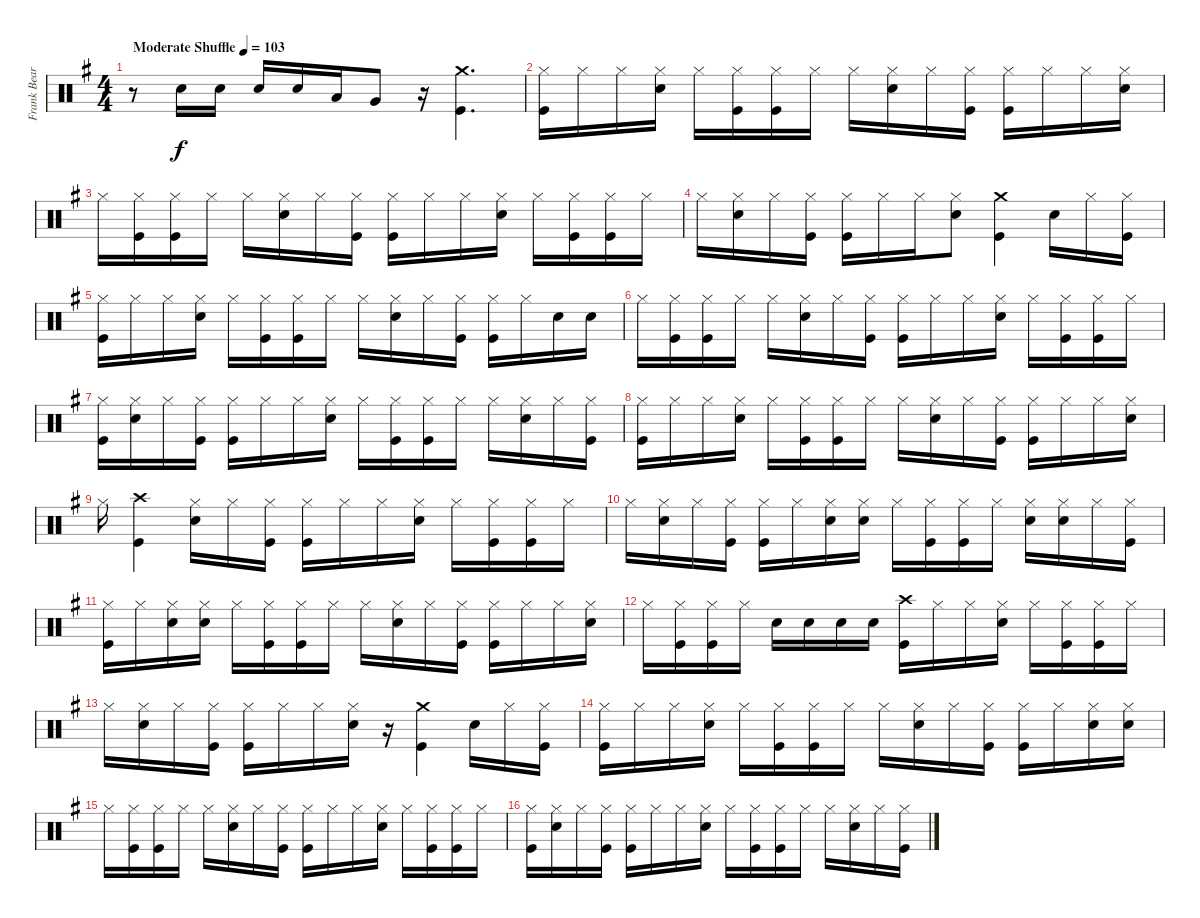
\track ("Frank Beard Drums" "Frank Bear") {instrument percussion}
\staff {score}
\articulation defaults
\ts (4 4)
\tempo (103 "Moderate Shuffle")
\clef neutral
\ks g
r.8{dy f} "Snare (hit) 2".16 "Snare (hit) 2".16 "Snare (hit) 2".16 "Snare (hit) 2".16 "Low Tom (hit)".16 "Very Low Tom (hit)".8 r.16 ("Crash medium (hit)" "Kick (hit)").4{d} |
("Hi-Hat (closed)" "Kick (hit)").16 "Hi-Hat (closed)".16 "Hi-Hat (closed)".16 ("Hi-Hat (closed)" "Snare (hit) 2").16 "Hi-Hat (closed)".16 ("Hi-Hat (closed)" "Kick (hit)").16 ("Hi-Hat (closed)" "Kick (hit)").16 "Hi-Hat (closed)".16 "Hi-Hat (closed)".16 ("Hi-Hat (closed)" "Snare (hit) 2").16 "Hi-Hat (closed)".16 ("Hi-Hat (closed)" "Kick (hit)").16 ("Hi-Hat (closed)" "Kick (hit)").16 "Hi-Hat (closed)".16 "Hi-Hat (closed)".16 ("Hi-Hat (closed)" "Snare (hit) 2").16 |
"Hi-Hat (closed)".16 ("Hi-Hat (closed)" "Kick (hit)").16 ("Hi-Hat (closed)" "Kick (hit)").16 "Hi-Hat (closed)".16 "Hi-Hat (closed)".16 ("Hi-Hat (closed)" "Snare (hit) 2").16 "Hi-Hat (closed)".16 ("Hi-Hat (closed)" "Kick (hit)").16 ("Hi-Hat (closed)" "Kick (hit)").16 "Hi-Hat (closed)".16 "Hi-Hat (closed)".16 ("Hi-Hat (closed)" "Snare (hit) 2").16 "Hi-Hat (closed)".16 ("Hi-Hat (closed)" "Kick (hit)").16 ("Hi-Hat (closed)" "Kick (hit)").16 "Hi-Hat (closed)".16 |
"Hi-Hat (closed)".16 ("Hi-Hat (closed)" "Snare (hit) 2").16 "Hi-Hat (closed)".16 ("Hi-Hat (closed)" "Kick (hit)").16 ("Hi-Hat (closed)" "Kick (hit)").16 "Hi-Hat (closed)".16 "Hi-Hat (closed)".16 ("Hi-Hat (closed)" "Snare (hit) 2").8 ("Crash medium (hit)" "Kick (hit)").4 "Snare (hit) 2".16 "Hi-Hat (closed)".16 ("Hi-Hat (closed)" "Kick (hit)").16 |
("Hi-Hat (closed)" "Kick (hit)").16 "Hi-Hat (closed)".16 "Hi-Hat (closed)".16 ("Hi-Hat (closed)" "Snare (hit) 2").16 "Hi-Hat (closed)".16 ("Hi-Hat (closed)" "Kick (hit)").16 ("Hi-Hat (closed)" "Kick (hit)").16 "Hi-Hat (closed)".16 "Hi-Hat (closed)".16 ("Hi-Hat (closed)" "Snare (hit) 2").16 "Hi-Hat (closed)".16 ("Hi-Hat (closed)" "Kick (hit)").16 ("Hi-Hat (closed)" "Kick (hit)").16 "Hi-Hat (closed)".16 "Snare (hit) 2".16 "Snare (hit) 2".16 |
"Hi-Hat (closed)".16 ("Hi-Hat (closed)" "Kick (hit)").16 ("Hi-Hat (closed)" "Kick (hit)").16 "Hi-Hat (closed)".16 "Hi-Hat (closed)".16 ("Hi-Hat (closed)" "Snare (hit) 2").16 "Hi-Hat (closed)".16 ("Hi-Hat (closed)" "Kick (hit)").16 ("Hi-Hat (closed)" "Kick (hit)").16 "Hi-Hat (closed)".16 "Hi-Hat (closed)".16 ("Hi-Hat (closed)" "Snare (hit) 2").16 "Hi-Hat (closed)".16 ("Hi-Hat (closed)" "Kick (hit)").16 ("Hi-Hat (closed)" "Kick (hit)").16 "Hi-Hat (closed)".16 |
("Hi-Hat (closed)" "Kick (hit)").16 ("Hi-Hat (closed)" "Snare (hit) 2").16 "Hi-Hat (closed)".16 ("Hi-Hat (closed)" "Kick (hit)").16 ("Hi-Hat (closed)" "Kick (hit)").16 "Hi-Hat (closed)".16 "Hi-Hat (closed)".16 ("Hi-Hat (closed)" "Snare (hit) 2").16 "Hi-Hat (closed)".16 ("Hi-Hat (closed)" "Kick (hit)").16 ("Hi-Hat (closed)" "Kick (hit)").16 "Hi-Hat (closed)".16 "Hi-Hat (closed)".16 ("Hi-Hat (closed)" "Snare (hit) 2").16 "Hi-Hat (closed)".16 ("Hi-Hat (closed)" "Kick (hit)").16 |
("Hi-Hat (closed)" "Kick (hit)").16 "Hi-Hat (closed)".16 "Hi-Hat (closed)".16 ("Hi-Hat (closed)" "Snare (hit) 2").16 "Hi-Hat (closed)".16 ("Hi-Hat (closed)" "Kick (hit)").16 ("Hi-Hat (closed)" "Kick (hit)").16 "Hi-Hat (closed)".16 "Hi-Hat (closed)".16 ("Hi-Hat (closed)" "Snare (hit) 2").16 "Hi-Hat (closed)".16 ("Hi-Hat (closed)" "Kick (hit)").16 ("Hi-Hat (closed)" "Kick (hit)").16 "Hi-Hat (closed)".16 "Hi-Hat (closed)".16 ("Hi-Hat (closed)" "Snare (hit) 2").16 |
"Hi-Hat (closed)".16 ("Crash high (hit)" "Kick (hit)").4 ("Hi-Hat (closed)" "Snare (hit) 2").16 "Hi-Hat (closed)".16 ("Hi-Hat (closed)" "Kick (hit)").16 ("Hi-Hat (closed)" "Kick (hit)").16 "Hi-Hat (closed)".16 "Hi-Hat (closed)".16 ("Hi-Hat (closed)" "Snare (hit) 2").16 "Hi-Hat (closed)".16 ("Hi-Hat (closed)" "Kick (hit)").16 ("Hi-Hat (closed)" "Kick (hit)").16 "Hi-Hat (closed)".16 |
"Hi-Hat (closed)".16 ("Hi-Hat (closed)" "Snare (hit) 2").16 "Hi-Hat (closed)".16 ("Hi-Hat (closed)" "Kick (hit)").16 ("Hi-Hat (closed)" "Kick (hit)").16 "Hi-Hat (closed)".16 ("Hi-Hat (closed)" "Snare (hit) 2").16 ("Hi-Hat (closed)" "Snare (hit) 2").16 "Hi-Hat (closed)".16 ("Hi-Hat (closed)" "Kick (hit)").16 ("Hi-Hat (closed)" "Kick (hit)").16 "Hi-Hat (closed)".16 ("Hi-Hat (closed)" "Snare (hit) 2").16 ("Hi-Hat (closed)" "Snare (hit) 2").16 "Hi-Hat (closed)".16 ("Hi-Hat (closed)" "Kick (hit)").16 |
("Hi-Hat (closed)" "Kick (hit)").16 "Hi-Hat (closed)".16 ("Hi-Hat (closed)" "Snare (hit) 2").16 ("Hi-Hat (closed)" "Snare (hit) 2").16 "Hi-Hat (closed)".16 ("Hi-Hat (closed)" "Kick (hit)").16 ("Hi-Hat (closed)" "Kick (hit)").16 "Hi-Hat (closed)".16 "Hi-Hat (closed)".16 ("Hi-Hat (closed)" "Snare (hit) 2").16 "Hi-Hat (closed)".16 ("Hi-Hat (closed)" "Kick (hit)").16 ("Hi-Hat (closed)" "Kick (hit)").16 "Hi-Hat (closed)".16 "Hi-Hat (closed)".16 ("Hi-Hat (closed)" "Snare (hit) 2").16 |
"Hi-Hat (closed)".16 ("Hi-Hat (closed)" "Kick (hit)").16 ("Hi-Hat (closed)" "Kick (hit)").16 "Hi-Hat (closed)".16 "Snare (hit) 2".16 "Snare (hit) 2".16 "Snare (hit) 2".16 "Snare (hit) 2".16 ("Crash high (hit)" "Kick (hit)").16 "Hi-Hat (closed)".16 "Hi-Hat (closed)".16 ("Hi-Hat (closed)" "Snare (hit) 2").16 "Hi-Hat (closed)".16 ("Hi-Hat (closed)" "Kick (hit)").16 ("Hi-Hat (closed)" "Kick (hit)").16 "Hi-Hat (closed)".16 |
"Hi-Hat (closed)".16 ("Hi-Hat (closed)" "Snare (hit) 2").16 "Hi-Hat (closed)".16 ("Hi-Hat (closed)" "Kick (hit)").16 ("Hi-Hat (closed)" "Kick (hit)").16 "Hi-Hat (closed)".16 "Hi-Hat (closed)".16 ("Hi-Hat (closed)" "Snare (hit) 2").16 r.16 ("Crash medium (hit)" "Kick (hit)").4 "Snare (hit) 2".16 "Hi-Hat (closed)".16 ("Hi-Hat (closed)" "Kick (hit)").16 |
("Hi-Hat (closed)" "Kick (hit)").16 "Hi-Hat (closed)".16 "Hi-Hat (closed)".16 ("Hi-Hat (closed)" "Snare (hit) 2").16 "Hi-Hat (closed)".16 ("Hi-Hat (closed)" "Kick (hit)").16 ("Hi-Hat (closed)" "Kick (hit)").16 "Hi-Hat (closed)".16 "Hi-Hat (closed)".16 ("Hi-Hat (closed)" "Snare (hit) 2").16 "Hi-Hat (closed)".16 ("Hi-Hat (closed)" "Kick (hit)").16 ("Hi-Hat (closed)" "Kick (hit)").16 "Hi-Hat (closed)".16 ("Hi-Hat (closed)" "Snare (hit) 2").16 ("Hi-Hat (closed)" "Snare (hit) 2").16 |
"Hi-Hat (closed)".16 ("Hi-Hat (closed)" "Kick (hit)").16 ("Hi-Hat (closed)" "Kick (hit)").16 "Hi-Hat (closed)".16 "Hi-Hat (closed)".16 ("Hi-Hat (closed)" "Snare (hit) 2").16 "Hi-Hat (closed)".16 ("Hi-Hat (closed)" "Kick (hit)").16 ("Hi-Hat (closed)" "Kick (hit)").16 "Hi-Hat (closed)".16 "Hi-Hat (closed)".16 ("Hi-Hat (closed)" "Snare (hit) 2").16 "Hi-Hat (closed)".16 ("Hi-Hat (closed)" "Kick (hit)").16 ("Hi-Hat (closed)" "Kick (hit)").16 "Hi-Hat (closed)".16 |
("Hi-Hat (closed)" "Kick (hit)").16 ("Hi-Hat (closed)" "Snare (hit) 2").16 "Hi-Hat (closed)".16 ("Hi-Hat (closed)" "Kick (hit)").16 ("Hi-Hat (closed)" "Kick (hit)").16 "Hi-Hat (closed)".16 "Hi-Hat (closed)".16 ("Hi-Hat (closed)" "Snare (hit) 2").16 "Hi-Hat (closed)".16 ("Hi-Hat (closed)" "Kick (hit)").16 ("Hi-Hat (closed)" "Kick (hit)").16 "Hi-Hat (closed)".16 "Hi-Hat (closed)".16 ("Hi-Hat (closed)" "Snare (hit) 2").16 "Hi-Hat (closed)".16 ("Hi-Hat (closed)" "Kick (hit)").16
